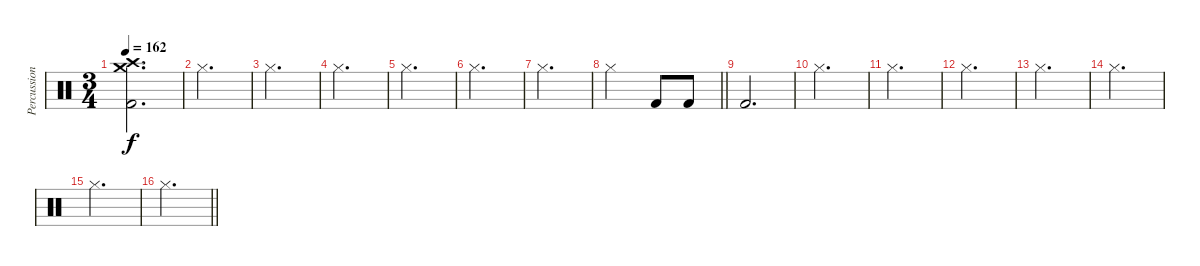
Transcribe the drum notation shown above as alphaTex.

\track ("Percussion" "Percussion") {instrument percussion}
\staff {score}
\articulation defaults
\ts (3 4)
\tempo 162
\clef neutral
\ks c
("Crash high (hit)" "Crash medium (hit)" "Kick (hit) 2").2{d dy f} |
"Hi-Hat (closed)".2{d} |
"Hi-Hat (closed)".2{d} |
"Hi-Hat (closed)".2{d} |
"Hi-Hat (closed)".2{d} |
"Hi-Hat (closed)".2{d} |
"Hi-Hat (closed)".2{d} |
\barLineRight lightlight "Hi-Hat (closed)".2 "Kick (hit) 2".8 "Kick (hit) 2".8
|
"Kick (hit) 2".2{d} |
"Hi-Hat (closed)".2{d} |
"Hi-Hat (closed)".2{d} |
"Hi-Hat (closed)".2{d} |
"Hi-Hat (closed)".2{d} |
"Hi-Hat (closed)".2{d} |
"Hi-Hat (closed)".2{d} |
\barLineRight lightlight "Hi-Hat (closed)".2{d}
